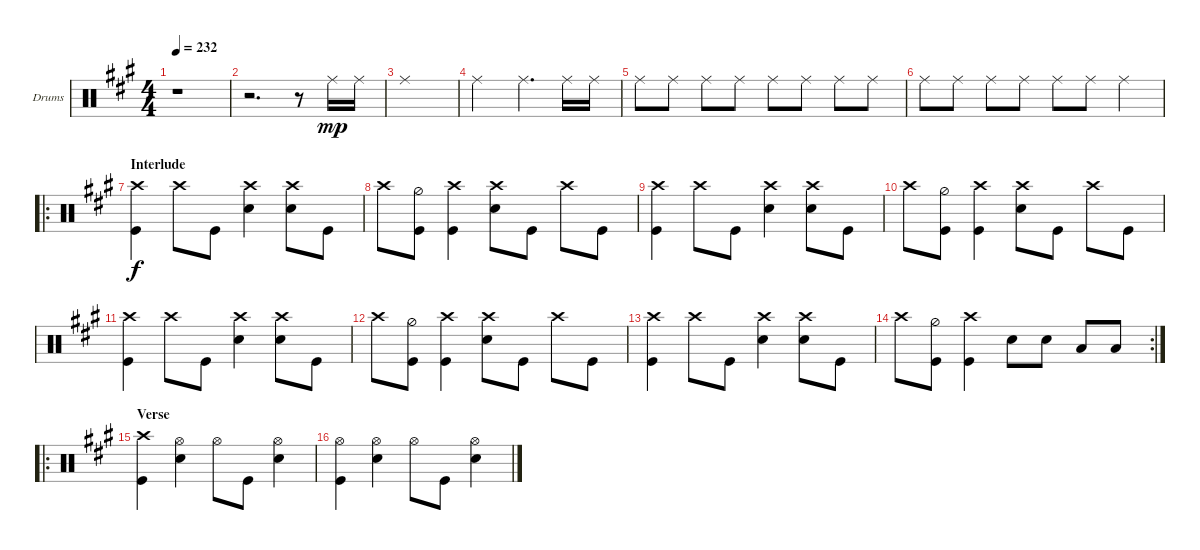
\defaultSystemsLayout 4
\bracketExtendMode groupsimilarinstruments
\firstSystemTrackNameOrientation horizontal
\otherSystemsTrackNameOrientation horizontal
\track ("Drums" "Drums") {instrument percussion}
\staff {score}
\articulation defaults
\ts (4 4)
\tempo 232
\clef neutral
\scale
0.333333
\ks a
r.1{dy mp} |
\scale
0.333333 r.2{d} r.8 "Ride (middle)".16 "Ride (middle)".16 |
\scale
0.333333 "Ride (middle)".1 |
\scale
0.333333 "Ride (middle)".2 "Ride (middle)".4{d} "Ride (middle)".16 "Ride (middle)".16 |
\scale
0.333333 "Ride (middle)".8 "Ride (middle)".8 "Ride (middle)".8 "Ride (middle)".8 "Ride (middle)".8 "Ride (middle)".8 "Ride (middle)".8 "Ride (middle)".8 |
\scale
0.333333 "Ride (middle)".8 "Ride (middle)".8 "Ride (middle)".8 "Ride (middle)".8 "Ride (middle)".8 "Ride (middle)".8 "Ride (middle)".4 |
\ro
\section ("" "Interlude")
\scale
0.333333 ("Crash high (hit)" "Kick (hit)").4{dy f} "Crash high (hit)".8 "Kick (hit)".8 ("Snare (hit) 2" "Crash high (hit)").4 ("Crash high (hit)" "Snare (hit) 2").8 "Kick (hit)".8 |
\scale
0.333333 "Crash high (hit)".8 ("Kick (hit)" "Hi-Hat (half)").8 ("Kick (hit)" "Crash high (hit)").4 ("Crash high (hit)" "Snare (hit) 2").8 "Kick (hit)".8 "Crash high (hit)".8 "Kick (hit)".8 |
\scale
0.333333 ("Crash high (hit)" "Kick (hit)").4 "Crash high (hit)".8 "Kick (hit)".8 ("Snare (hit) 2" "Crash high (hit)").4 ("Crash high (hit)" "Snare (hit) 2").8 "Kick (hit)".8 |
\scale
0.333333 "Crash high (hit)".8 ("Kick (hit)" "Hi-Hat (half)").8 ("Kick (hit)" "Crash high (hit)").4 ("Crash high (hit)" "Snare (hit) 2").8 "Kick (hit)".8 "Crash high (hit)".8 "Kick (hit)".8 |
\scale
0.333333 ("Crash high (hit)" "Kick (hit)").4 "Crash high (hit)".8 "Kick (hit)".8 ("Snare (hit) 2" "Crash high (hit)").4 ("Crash high (hit)" "Snare (hit) 2").8 "Kick (hit)".8 |
"Crash high (hit)".8 ("Kick (hit)" "Hi-Hat (half)").8 ("Kick (hit)" "Crash high (hit)").4 ("Crash high (hit)" "Snare (hit) 2").8 "Kick (hit)".8 "Crash high (hit)".8 "Kick (hit)".8 |
("Crash high (hit)" "Kick (hit)").4 "Crash high (hit)".8 "Kick (hit)".8 ("Snare (hit) 2" "Crash high (hit)").4 ("Crash high (hit)" "Snare (hit) 2").8 "Kick (hit)".8 |
\rc 2 "Crash high (hit)".8
("Kick (hit)" "Hi-Hat (half)").8 ("Kick (hit)" "Crash high (hit)").4 "Snare (hit) 2".8 "Snare (hit) 2".8 "Low Tom (hit)".8 "Low Tom (hit)".8 |
\ro
\section ("" "Verse")
("Kick (hit)" "Crash high (hit)").4 ("Snare (hit) 2" "Hi-Hat (open)").4 "Hi-Hat (open)".8 "Kick (hit)".8 ("Snare (hit) 2" "Hi-Hat (open)").4 |
("Kick (hit)" "Hi-Hat (open)").4 ("Snare (hit) 2" "Hi-Hat (open)").4 "Hi-Hat (open)".8 "Kick (hit)".8 ("Snare (hit) 2" "Hi-Hat (open)").4
